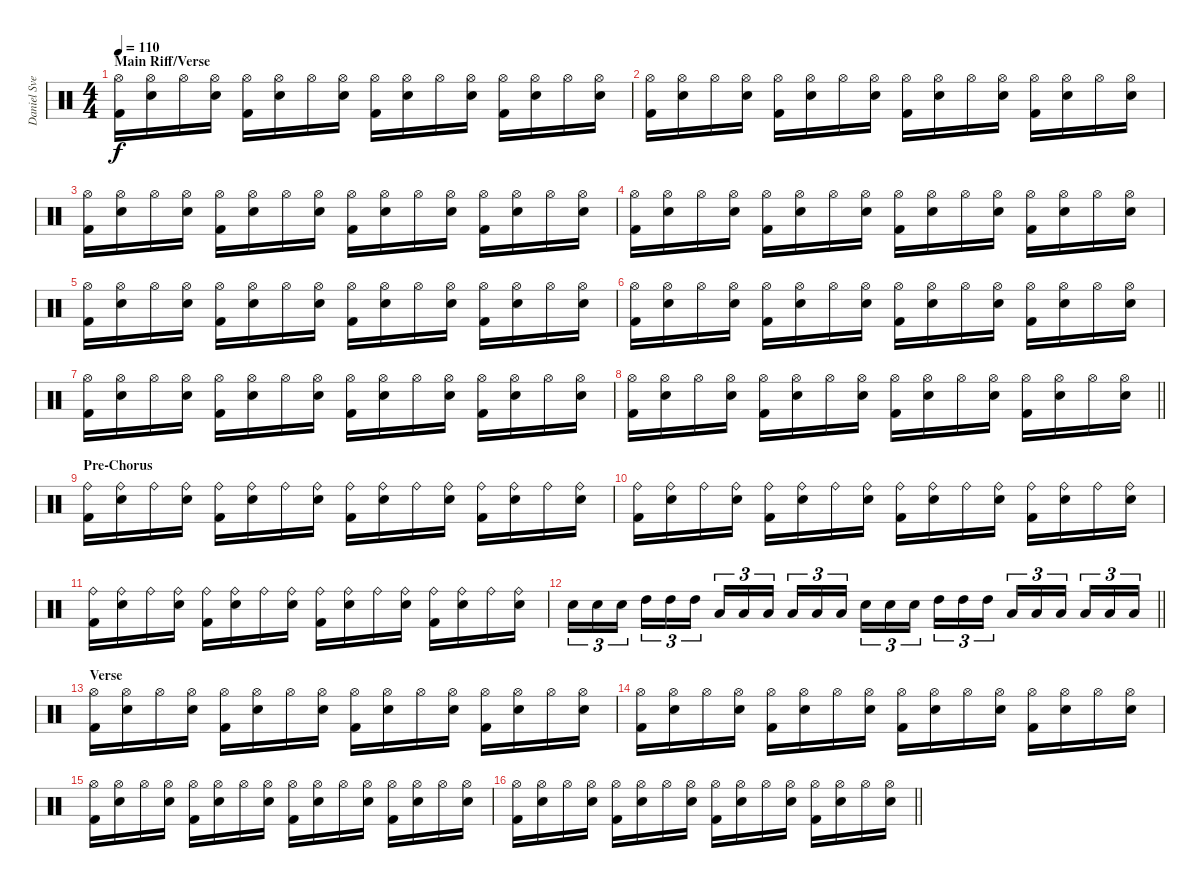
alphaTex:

\track ("Daniel Svennson" "Daniel Sve") {instrument percussion}
\staff {score}
\articulation defaults
\ts (4 4)
\section ("" "Main Riff/Verse")
\tempo 110
\clef neutral
\ks c
("Hi-Hat (open)" "Kick (hit) 2").16{dy f} ("Hi-Hat (open)" "Snare (hit) 2").16 "Hi-Hat (open)".16 ("Hi-Hat (open)" "Snare (hit) 2").16 ("Hi-Hat (open)" "Kick (hit) 2").16 ("Hi-Hat (open)" "Snare (hit) 2").16 "Hi-Hat (open)".16 ("Hi-Hat (open)" "Snare (hit) 2").16 ("Hi-Hat (open)" "Kick (hit) 2").16 ("Hi-Hat (open)" "Snare (hit) 2").16 "Hi-Hat (open)".16 ("Hi-Hat (open)" "Snare (hit) 2").16 ("Hi-Hat (open)" "Kick (hit) 2").16 ("Hi-Hat (open)" "Snare (hit) 2").16 "Hi-Hat (open)".16 ("Hi-Hat (open)" "Snare (hit) 2").16 |
("Hi-Hat (open)" "Kick (hit) 2").16 ("Hi-Hat (open)" "Snare (hit) 2").16 "Hi-Hat (open)".16 ("Hi-Hat (open)" "Snare (hit) 2").16 ("Hi-Hat (open)" "Kick (hit) 2").16 ("Hi-Hat (open)" "Snare (hit) 2").16 "Hi-Hat (open)".16 ("Hi-Hat (open)" "Snare (hit) 2").16 ("Hi-Hat (open)" "Kick (hit) 2").16 ("Hi-Hat (open)" "Snare (hit) 2").16 "Hi-Hat (open)".16 ("Hi-Hat (open)" "Snare (hit) 2").16 ("Hi-Hat (open)" "Kick (hit) 2").16 ("Hi-Hat (open)" "Snare (hit) 2").16 "Hi-Hat (open)".16 ("Hi-Hat (open)" "Snare (hit) 2").16 |
("Hi-Hat (open)" "Kick (hit) 2").16 ("Hi-Hat (open)" "Snare (hit) 2").16 "Hi-Hat (open)".16 ("Hi-Hat (open)" "Snare (hit) 2").16 ("Hi-Hat (open)" "Kick (hit) 2").16 ("Hi-Hat (open)" "Snare (hit) 2").16 "Hi-Hat (open)".16 ("Hi-Hat (open)" "Snare (hit) 2").16 ("Hi-Hat (open)" "Kick (hit) 2").16 ("Hi-Hat (open)" "Snare (hit) 2").16 "Hi-Hat (open)".16 ("Hi-Hat (open)" "Snare (hit) 2").16 ("Hi-Hat (open)" "Kick (hit) 2").16 ("Hi-Hat (open)" "Snare (hit) 2").16 "Hi-Hat (open)".16 ("Hi-Hat (open)" "Snare (hit) 2").16 |
("Hi-Hat (open)" "Kick (hit) 2").16 ("Hi-Hat (open)" "Snare (hit) 2").16 "Hi-Hat (open)".16 ("Hi-Hat (open)" "Snare (hit) 2").16 ("Hi-Hat (open)" "Kick (hit) 2").16 ("Hi-Hat (open)" "Snare (hit) 2").16 "Hi-Hat (open)".16 ("Hi-Hat (open)" "Snare (hit) 2").16 ("Hi-Hat (open)" "Kick (hit) 2").16 ("Hi-Hat (open)" "Snare (hit) 2").16 "Hi-Hat (open)".16 ("Hi-Hat (open)" "Snare (hit) 2").16 ("Hi-Hat (open)" "Kick (hit) 2").16 ("Hi-Hat (open)" "Snare (hit) 2").16 "Hi-Hat (open)".16 ("Hi-Hat (open)" "Snare (hit) 2").16 |
("Hi-Hat (open)" "Kick (hit) 2").16 ("Hi-Hat (open)" "Snare (hit) 2").16 "Hi-Hat (open)".16 ("Hi-Hat (open)" "Snare (hit) 2").16 ("Hi-Hat (open)" "Kick (hit) 2").16 ("Hi-Hat (open)" "Snare (hit) 2").16 "Hi-Hat (open)".16 ("Hi-Hat (open)" "Snare (hit) 2").16 ("Hi-Hat (open)" "Kick (hit) 2").16 ("Hi-Hat (open)" "Snare (hit) 2").16 "Hi-Hat (open)".16 ("Hi-Hat (open)" "Snare (hit) 2").16 ("Hi-Hat (open)" "Kick (hit) 2").16 ("Hi-Hat (open)" "Snare (hit) 2").16 "Hi-Hat (open)".16 ("Hi-Hat (open)" "Snare (hit) 2").16 |
("Hi-Hat (open)" "Kick (hit) 2").16 ("Hi-Hat (open)" "Snare (hit) 2").16 "Hi-Hat (open)".16 ("Hi-Hat (open)" "Snare (hit) 2").16 ("Hi-Hat (open)" "Kick (hit) 2").16 ("Hi-Hat (open)" "Snare (hit) 2").16 "Hi-Hat (open)".16 ("Hi-Hat (open)" "Snare (hit) 2").16 ("Hi-Hat (open)" "Kick (hit) 2").16 ("Hi-Hat (open)" "Snare (hit) 2").16 "Hi-Hat (open)".16 ("Hi-Hat (open)" "Snare (hit) 2").16 ("Hi-Hat (open)" "Kick (hit) 2").16 ("Hi-Hat (open)" "Snare (hit) 2").16 "Hi-Hat (open)".16 ("Hi-Hat (open)" "Snare (hit) 2").16 |
("Hi-Hat (open)" "Kick (hit) 2").16 ("Hi-Hat (open)" "Snare (hit) 2").16 "Hi-Hat (open)".16 ("Hi-Hat (open)" "Snare (hit) 2").16 ("Hi-Hat (open)" "Kick (hit) 2").16 ("Hi-Hat (open)" "Snare (hit) 2").16 "Hi-Hat (open)".16 ("Hi-Hat (open)" "Snare (hit) 2").16 ("Hi-Hat (open)" "Kick (hit) 2").16 ("Hi-Hat (open)" "Snare (hit) 2").16 "Hi-Hat (open)".16 ("Hi-Hat (open)" "Snare (hit) 2").16 ("Hi-Hat (open)" "Kick (hit) 2").16 ("Hi-Hat (open)" "Snare (hit) 2").16 "Hi-Hat (open)".16 ("Hi-Hat (open)" "Snare (hit) 2").16 |
\barLineRight lightlight
("Hi-Hat (open)" "Kick (hit) 2").16 ("Hi-Hat (open)" "Snare (hit) 2").16 "Hi-Hat (open)".16 ("Hi-Hat (open)" "Snare (hit) 2").16 ("Hi-Hat (open)" "Kick (hit) 2").16 ("Hi-Hat (open)" "Snare (hit) 2").16 "Hi-Hat (open)".16 ("Hi-Hat (open)" "Snare (hit) 2").16 ("Hi-Hat (open)" "Kick (hit) 2").16 ("Hi-Hat (open)" "Snare (hit) 2").16 "Hi-Hat (open)".16 ("Hi-Hat (open)" "Snare (hit) 2").16 ("Hi-Hat (open)" "Kick (hit) 2").16 ("Hi-Hat (open)" "Snare (hit) 2").16 "Hi-Hat (open)".16 ("Hi-Hat (open)" "Snare (hit) 2").16 |
\section ("" "Pre-Chorus")
("Ride (bell)" "Kick (hit) 2").16 ("Ride (bell)" "Snare (hit) 2").16 "Ride (bell)".16 ("Ride (bell)" "Snare (hit) 2").16 ("Ride (bell)" "Kick (hit) 2").16 ("Ride (bell)" "Snare (hit) 2").16 "Ride (bell)".16 ("Ride (bell)" "Snare (hit) 2").16 ("Ride (bell)" "Kick (hit) 2").16 ("Ride (bell)" "Snare (hit) 2").16 "Ride (bell)".16 ("Ride (bell)" "Snare (hit) 2").16 ("Ride (bell)" "Kick (hit) 2").16 ("Ride (bell)" "Snare (hit) 2").16 "Ride (bell)".16 ("Ride (bell)" "Snare (hit) 2").16 |
("Ride (bell)" "Kick (hit) 2").16 ("Ride (bell)" "Snare (hit) 2").16 "Ride (bell)".16 ("Ride (bell)" "Snare (hit) 2").16 ("Ride (bell)" "Kick (hit) 2").16 ("Ride (bell)" "Snare (hit) 2").16 "Ride (bell)".16 ("Ride (bell)" "Snare (hit) 2").16 ("Ride (bell)" "Kick (hit) 2").16 ("Ride (bell)" "Snare (hit) 2").16 "Ride (bell)".16 ("Ride (bell)" "Snare (hit) 2").16 ("Ride (bell)" "Kick (hit) 2").16 ("Ride (bell)" "Snare (hit) 2").16 "Ride (bell)".16 ("Ride (bell)" "Snare (hit) 2").16 |
("Ride (bell)" "Kick (hit) 2").16 ("Ride (bell)" "Snare (hit) 2").16 "Ride (bell)".16 ("Ride (bell)" "Snare (hit) 2").16 ("Ride (bell)" "Kick (hit) 2").16 ("Ride (bell)" "Snare (hit) 2").16 "Ride (bell)".16 ("Ride (bell)" "Snare (hit) 2").16 ("Ride (bell)" "Kick (hit) 2").16 ("Ride (bell)" "Snare (hit) 2").16 "Ride (bell)".16 ("Ride (bell)" "Snare (hit) 2").16 ("Ride (bell)" "Kick (hit) 2").16 ("Ride (bell)" "Snare (hit) 2").16 "Ride (bell)".16 ("Ride (bell)" "Snare (hit) 2").16 |
\barLineRight lightlight "Snare (hit) 2".16{tu (3 2)} "Snare (hit) 2".16{tu (3 2)} "Snare (hit) 2".16{tu (3 2)} "High Tom (hit)".16{tu (3 2)} "High Tom (hit)".16{tu (3 2)} "High Tom (hit)".16{tu (3 2)} "Low Tom (hit)".16{tu (3 2)} "Low Tom (hit)".16{tu (3 2)} "Low Tom (hit)".16{tu (3 2)} "Low Floor Tom (hit)".16{tu (3 2)} "Low Floor Tom (hit)".16{tu (3 2)} "Low Floor Tom (hit)".16{tu (3 2)} "Snare (hit) 2".16{tu (3 2)} "Snare (hit) 2".16{tu (3 2)} "Snare (hit) 2".16{tu (3 2)} "High Tom (hit)".16{tu (3 2)} "High Tom (hit)".16{tu (3 2)} "High Tom (hit)".16{tu (3 2)} "Low Floor Tom (hit)".16{tu (3 2)} "Low Floor Tom (hit)".16{tu (3 2)} "Low Floor Tom (hit)".16{tu (3 2)} "Low Floor Tom (hit)".16{tu (3 2)} "Low Tom (hit)".16{tu (3 2)} "Low Tom (hit)".16{tu (3 2)}
|
\section ("" "Verse")
("Hi-Hat (open)" "Kick (hit) 2").16 ("Hi-Hat (open)" "Snare (hit) 2").16 "Hi-Hat (open)".16 ("Hi-Hat (open)" "Snare (hit) 2").16 ("Hi-Hat (open)" "Kick (hit) 2").16 ("Hi-Hat (open)" "Snare (hit) 2").16 "Hi-Hat (open)".16 ("Hi-Hat (open)" "Snare (hit) 2").16 ("Hi-Hat (open)" "Kick (hit) 2").16 ("Hi-Hat (open)" "Snare (hit) 2").16 "Hi-Hat (open)".16 ("Hi-Hat (open)" "Snare (hit) 2").16 ("Hi-Hat (open)" "Kick (hit) 2").16 ("Hi-Hat (open)" "Snare (hit) 2").16 "Hi-Hat (open)".16 ("Hi-Hat (open)" "Snare (hit) 2").16 |
("Hi-Hat (open)" "Kick (hit) 2").16 ("Hi-Hat (open)" "Snare (hit) 2").16 "Hi-Hat (open)".16 ("Hi-Hat (open)" "Snare (hit) 2").16 ("Hi-Hat (open)" "Kick (hit) 2").16 ("Hi-Hat (open)" "Snare (hit) 2").16 "Hi-Hat (open)".16 ("Hi-Hat (open)" "Snare (hit) 2").16 ("Hi-Hat (open)" "Kick (hit) 2").16 ("Hi-Hat (open)" "Snare (hit) 2").16 "Hi-Hat (open)".16 ("Hi-Hat (open)" "Snare (hit) 2").16 ("Hi-Hat (open)" "Kick (hit) 2").16 ("Hi-Hat (open)" "Snare (hit) 2").16 "Hi-Hat (open)".16 ("Hi-Hat (open)" "Snare (hit) 2").16 |
("Hi-Hat (open)" "Kick (hit) 2").16 ("Hi-Hat (open)" "Snare (hit) 2").16 "Hi-Hat (open)".16 ("Hi-Hat (open)" "Snare (hit) 2").16 ("Hi-Hat (open)" "Kick (hit) 2").16 ("Hi-Hat (open)" "Snare (hit) 2").16 "Hi-Hat (open)".16 ("Hi-Hat (open)" "Snare (hit) 2").16 ("Hi-Hat (open)" "Kick (hit) 2").16 ("Hi-Hat (open)" "Snare (hit) 2").16 "Hi-Hat (open)".16 ("Hi-Hat (open)" "Snare (hit) 2").16 ("Hi-Hat (open)" "Kick (hit) 2").16 ("Hi-Hat (open)" "Snare (hit) 2").16 "Hi-Hat (open)".16 ("Hi-Hat (open)" "Snare (hit) 2").16 |
\barLineRight lightlight
("Hi-Hat (open)" "Kick (hit) 2").16 ("Hi-Hat (open)" "Snare (hit) 2").16 "Hi-Hat (open)".16 ("Hi-Hat (open)" "Snare (hit) 2").16 ("Hi-Hat (open)" "Kick (hit) 2").16 ("Hi-Hat (open)" "Snare (hit) 2").16 "Hi-Hat (open)".16 ("Hi-Hat (open)" "Snare (hit) 2").16 ("Hi-Hat (open)" "Kick (hit) 2").16 ("Hi-Hat (open)" "Snare (hit) 2").16 "Hi-Hat (open)".16 ("Hi-Hat (open)" "Snare (hit) 2").16 ("Hi-Hat (open)" "Kick (hit) 2").16 ("Hi-Hat (open)" "Snare (hit) 2").16 "Hi-Hat (open)".16 ("Hi-Hat (open)" "Snare (hit) 2").16
